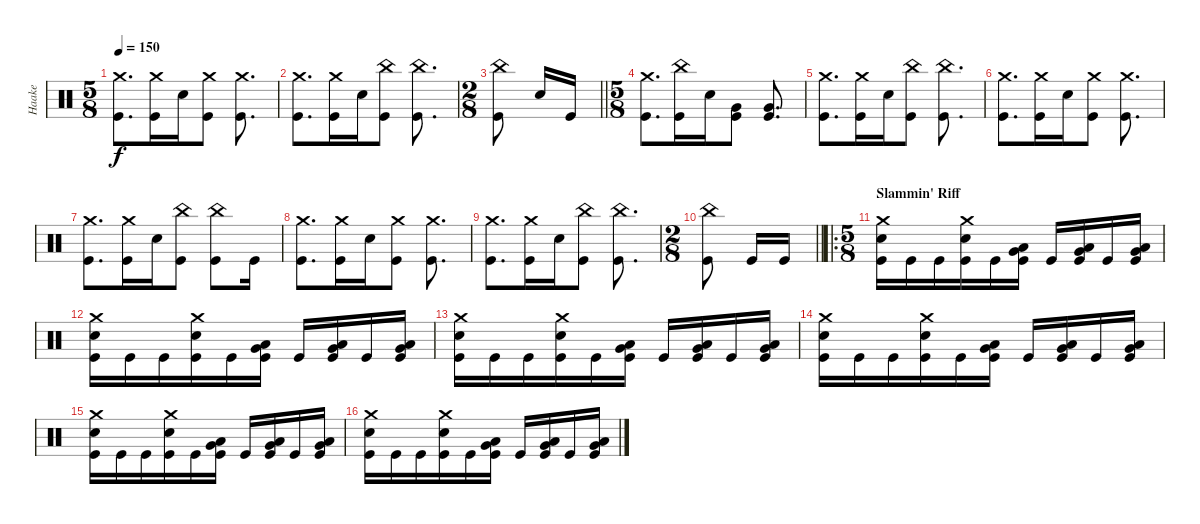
\track ("Haake" "Haake") {instrument percussion}
\staff {score}
\articulation defaults
\ts (5 8)
\tempo 150
\clef neutral
\ks c
("Crash medium (hit)" "Kick (hit)").8{d dy f} ("Crash medium (hit)" "Kick (hit)").16 "Snare (hit) 2".16 ("Crash medium (hit)" "Kick (hit)").8 ("Crash medium (hit)" "Kick (hit)").8{d} |
("Crash medium (hit)" "Kick (hit)").8{d} ("Crash medium (hit)" "Kick (hit)").16 "Snare (hit) 2".16 ("China (hit)" "Kick (hit)").8 ("China (hit)" "Kick (hit)").8{d} |
\ts (2 8)
\barLineRight lightlight
("China (hit)" "Kick (hit)").8 "Snare (hit) 2".16 "Kick (hit)".16 |
\ts (5 8)
("Crash medium (hit)" "Kick (hit)").8{d} ("China (hit)" "Kick (hit)").16 "Snare (hit) 2".16 ("Very Low Tom (hit)" "Kick (hit)").8 ("Very Low Tom (hit)" "Kick (hit)").8{d} |
("Crash medium (hit)" "Kick (hit)").8{d} ("Crash medium (hit)" "Kick (hit)").16 "Snare (hit) 2".16 ("China (hit)" "Kick (hit)").8 ("China (hit)" "Kick (hit)").8{d} |
("Crash medium (hit)" "Kick (hit)").8{d} ("Crash medium (hit)" "Kick (hit)").16 "Snare (hit) 2".16 ("Crash medium (hit)" "Kick (hit)").8 ("Crash medium (hit)" "Kick (hit)").8{d} |
("Crash medium (hit)" "Kick (hit)").8{d} ("Crash medium (hit)" "Kick (hit)").16 "Snare (hit) 2".16 ("China (hit)" "Kick (hit)").8 ("China (hit)" "Kick (hit)").8 "Kick (hit)".16 |
("Crash medium (hit)" "Kick (hit)").8{d} ("Crash medium (hit)" "Kick (hit)").16 "Snare (hit) 2".16 ("Crash medium (hit)" "Kick (hit)").8 ("Crash medium (hit)" "Kick (hit)").8{d} |
("Crash medium (hit)" "Kick (hit)").8{d} ("Crash medium (hit)" "Kick (hit)").16 "Snare (hit) 2".16 ("China (hit)" "Kick (hit)").8 ("China (hit)" "Kick (hit)").8{d} |
\ts (2 8)
\barLineRight lightlight
("China (hit)" "Kick (hit)").8 "Kick (hit)".16 "Kick (hit)".16 |
\ro
\ts (5 8)
\section ("" "Slammin' Riff")
("Crash medium (hit)" "Snare (hit) 2" "Kick (hit)").16 "Kick (hit)".16 "Kick (hit)".16 ("Crash medium (hit)" "Snare (hit) 2" "Kick (hit)").16 "Kick (hit)".16 ("Low Tom (hit)" "Very Low Tom (hit)" "Kick (hit)").16 "Kick (hit)".16 ("Low Tom (hit)" "Very Low Tom (hit)" "Kick (hit)").16 "Kick (hit)".16 ("Low Tom (hit)" "Very Low Tom (hit)" "Kick (hit)").16 |
("Crash medium (hit)" "Snare (hit) 2" "Kick (hit)").16 "Kick (hit)".16 "Kick (hit)".16 ("Crash medium (hit)" "Snare (hit) 2" "Kick (hit)").16 "Kick (hit)".16 ("Low Tom (hit)" "Very Low Tom (hit)" "Kick (hit)").16 "Kick (hit)".16 ("Low Tom (hit)" "Very Low Tom (hit)" "Kick (hit)").16 "Kick (hit)".16 ("Low Tom (hit)" "Very Low Tom (hit)" "Kick (hit)").16 |
("Crash medium (hit)" "Snare (hit) 2" "Kick (hit)").16 "Kick (hit)".16 "Kick (hit)".16 ("Crash medium (hit)" "Snare (hit) 2" "Kick (hit)").16 "Kick (hit)".16 ("Low Tom (hit)" "Very Low Tom (hit)" "Kick (hit)").16 "Kick (hit)".16 ("Low Tom (hit)" "Very Low Tom (hit)" "Kick (hit)").16 "Kick (hit)".16 ("Low Tom (hit)" "Very Low Tom (hit)" "Kick (hit)").16 |
("Crash medium (hit)" "Snare (hit) 2" "Kick (hit)").16 "Kick (hit)".16 "Kick (hit)".16 ("Crash medium (hit)" "Snare (hit) 2" "Kick (hit)").16 "Kick (hit)".16 ("Low Tom (hit)" "Very Low Tom (hit)" "Kick (hit)").16 "Kick (hit)".16 ("Low Tom (hit)" "Very Low Tom (hit)" "Kick (hit)").16 "Kick (hit)".16 ("Low Tom (hit)" "Very Low Tom (hit)" "Kick (hit)").16 |
("Crash medium (hit)" "Snare (hit) 2" "Kick (hit)").16 "Kick (hit)".16 "Kick (hit)".16 ("Crash medium (hit)" "Snare (hit) 2" "Kick (hit)").16 "Kick (hit)".16 ("Low Tom (hit)" "Very Low Tom (hit)" "Kick (hit)").16 "Kick (hit)".16 ("Low Tom (hit)" "Very Low Tom (hit)" "Kick (hit)").16 "Kick (hit)".16 ("Low Tom (hit)" "Very Low Tom (hit)" "Kick (hit)").16 |
("Crash medium (hit)" "Snare (hit) 2" "Kick (hit)").16 "Kick (hit)".16 "Kick (hit)".16 ("Crash medium (hit)" "Snare (hit) 2" "Kick (hit)").16 "Kick (hit)".16 ("Low Tom (hit)" "Very Low Tom (hit)" "Kick (hit)").16 "Kick (hit)".16 ("Low Tom (hit)" "Very Low Tom (hit)" "Kick (hit)").16 "Kick (hit)".16 ("Low Tom (hit)" "Very Low Tom (hit)" "Kick (hit)").16
